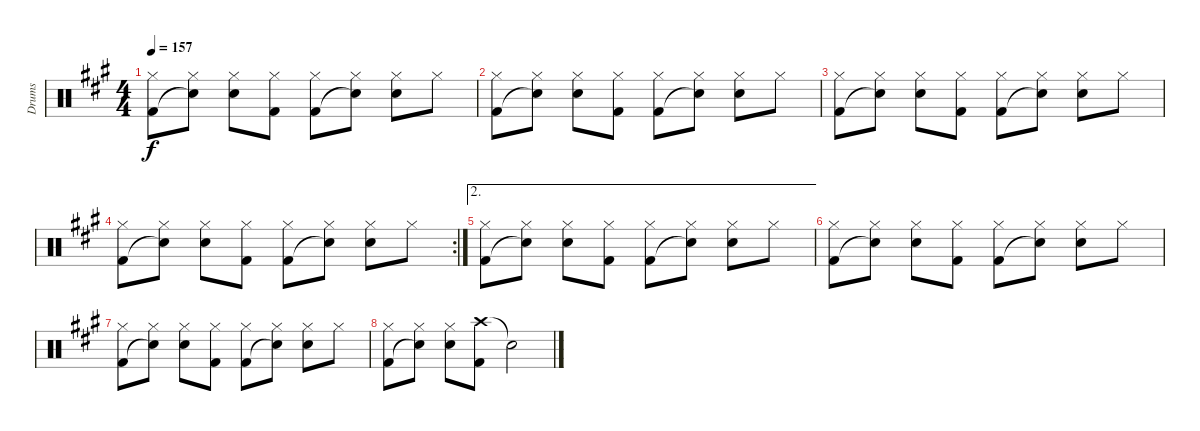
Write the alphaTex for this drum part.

\track ("Drums" "Drums") {instrument percussion}
\staff {score}
\articulation defaults
\ts (4 4)
\tempo 157
\clef neutral
\ks a
("Hi-Hat (closed)" "Kick (hit) 2").8{dy f} ("Hi-Hat (closed)" "Snare (hit)"{t}).8 ("Hi-Hat (closed)" "Snare (hit) 2").8 ("Hi-Hat (closed)" "Kick (hit) 2").8 ("Hi-Hat (closed)" "Kick (hit) 2").8 ("Hi-Hat (closed)" "Snare (hit)"{t}).8 ("Hi-Hat (closed)" "Snare (hit) 2").8 "Hi-Hat (closed)".8 |
("Hi-Hat (closed)" "Kick (hit) 2").8 ("Hi-Hat (closed)" "Snare (hit)"{t}).8 ("Hi-Hat (closed)" "Snare (hit) 2").8 ("Hi-Hat (closed)" "Kick (hit) 2").8 ("Hi-Hat (closed)" "Kick (hit) 2").8 ("Hi-Hat (closed)" "Snare (hit)"{t}).8 ("Hi-Hat (closed)" "Snare (hit) 2").8 "Hi-Hat (closed)".8 |
("Hi-Hat (closed)" "Kick (hit) 2").8 ("Hi-Hat (closed)" "Snare (hit)"{t}).8 ("Hi-Hat (closed)" "Snare (hit) 2").8 ("Hi-Hat (closed)" "Kick (hit) 2").8 ("Hi-Hat (closed)" "Kick (hit) 2").8 ("Hi-Hat (closed)" "Snare (hit)"{t}).8 ("Hi-Hat (closed)" "Snare (hit) 2").8 "Hi-Hat (closed)".8 |
\rc 2
("Hi-Hat (closed)" "Kick (hit) 2").8 ("Hi-Hat (closed)" "Snare (hit)"{t}).8 ("Hi-Hat (closed)" "Snare (hit) 2").8 ("Hi-Hat (closed)" "Kick (hit) 2").8 ("Hi-Hat (closed)" "Kick (hit) 2").8 ("Hi-Hat (closed)" "Snare (hit)"{t}).8 ("Hi-Hat (closed)" "Snare (hit) 2").8 "Hi-Hat (closed)".8 |
\ae 2
("Hi-Hat (closed)" "Kick (hit) 2").8 ("Hi-Hat (closed)" "Snare (hit)"{t}).8 ("Hi-Hat (closed)" "Snare (hit) 2").8 ("Hi-Hat (closed)" "Kick (hit) 2").8 ("Hi-Hat (closed)" "Kick (hit) 2").8 ("Hi-Hat (closed)" "Snare (hit)"{t}).8 ("Hi-Hat (closed)" "Snare (hit) 2").8 "Hi-Hat (closed)".8 |
("Hi-Hat (closed)" "Kick (hit) 2").8 ("Hi-Hat (closed)" "Snare (hit)"{t}).8 ("Hi-Hat (closed)" "Snare (hit) 2").8 ("Hi-Hat (closed)" "Kick (hit) 2").8 ("Hi-Hat (closed)" "Kick (hit) 2").8 ("Hi-Hat (closed)" "Snare (hit)"{t}).8 ("Hi-Hat (closed)" "Snare (hit) 2").8 "Hi-Hat (closed)".8 |
("Hi-Hat (closed)" "Kick (hit) 2").8 ("Hi-Hat (closed)" "Snare (hit)"{t}).8 ("Hi-Hat (closed)" "Snare (hit) 2").8 ("Hi-Hat (closed)" "Kick (hit) 2").8 ("Hi-Hat (closed)" "Kick (hit) 2").8 ("Hi-Hat (closed)" "Snare (hit)"{t}).8 ("Hi-Hat (closed)" "Snare (hit) 2").8 "Hi-Hat (closed)".8 |
("Hi-Hat (closed)" "Kick (hit) 2").8 ("Hi-Hat (closed)" "Snare (hit)"{t}).8 ("Hi-Hat (closed)" "Snare (hit) 2").8 ("Crash high (hit)" "Kick (hit) 2").8 "Snare (hit)"{t}.2
